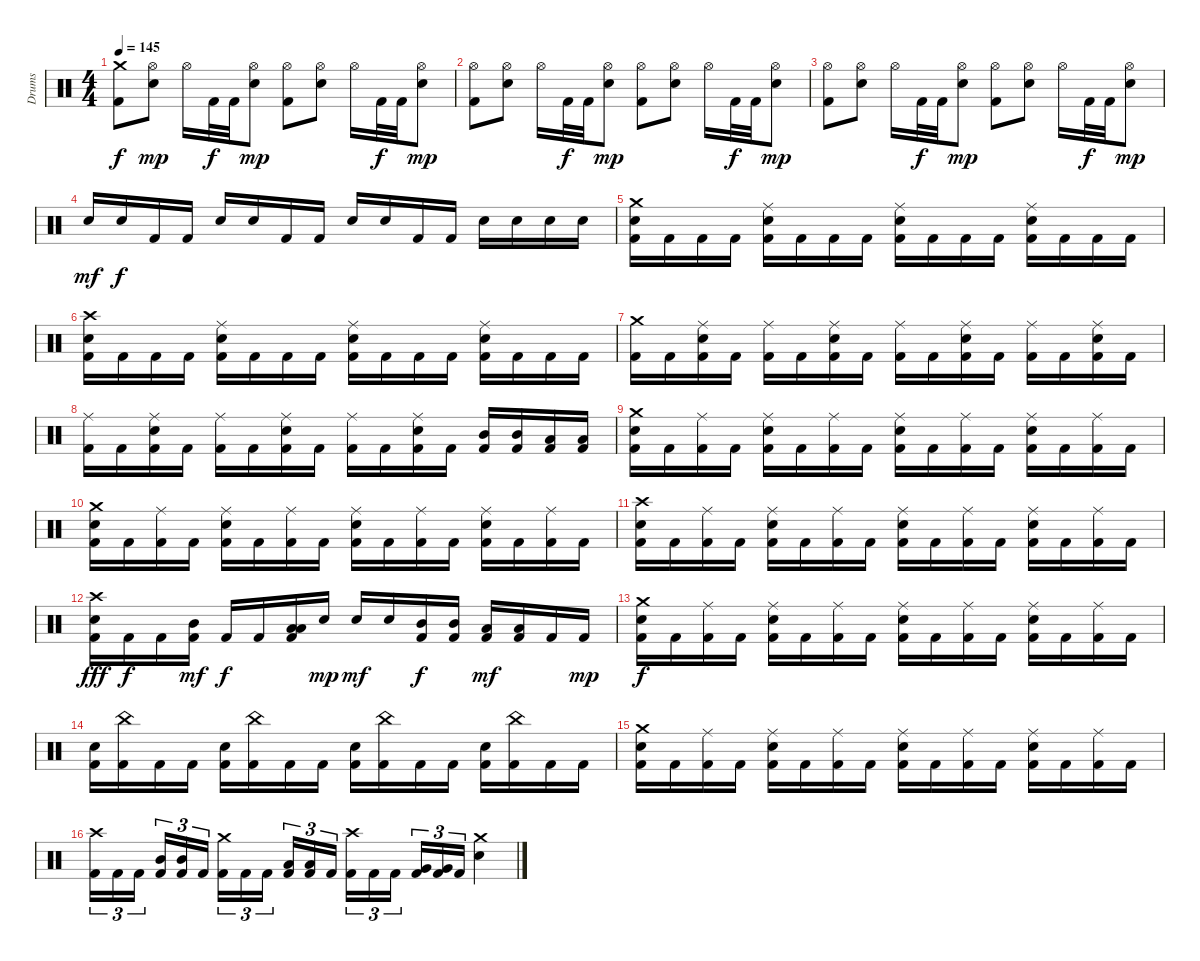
\track ("Drums" "Drums") {instrument percussion}
\staff {score}
\articulation defaults
\ts (4 4)
\tempo 145
\clef neutral
\ks c
("Crash medium (hit)" "Kick (hit) 2").8{dy f} ("Hi-Hat (open)" "Electric Snare (hit)").8{dy mp} "Hi-Hat (open)".16 "Kick (hit) 2".32{dy f} "Kick (hit) 2".32 ("Hi-Hat (open)" "Electric Snare (hit)").8{dy mp} ("Hi-Hat (open)" "Kick (hit) 2").8 ("Hi-Hat (open)" "Electric Snare (hit)").8 "Hi-Hat (open)".16 "Kick (hit) 2".32{dy f} "Kick (hit) 2".32 ("Hi-Hat (open)" "Electric Snare (hit)").8{dy mp} |
("Hi-Hat (open)" "Kick (hit) 2").8 ("Hi-Hat (open)" "Electric Snare (hit)").8 "Hi-Hat (open)".16 "Kick (hit) 2".32{dy f} "Kick (hit) 2".32 ("Hi-Hat (open)" "Electric Snare (hit)").8{dy mp} ("Hi-Hat (open)" "Kick (hit) 2").8 ("Hi-Hat (open)" "Electric Snare (hit)").8 "Hi-Hat (open)".16 "Kick (hit) 2".32{dy f} "Kick (hit) 2".32 ("Hi-Hat (open)" "Electric Snare (hit)").8{dy mp} |
("Hi-Hat (open)" "Kick (hit) 2").8 ("Hi-Hat (open)" "Electric Snare (hit)").8 "Hi-Hat (open)".16 "Kick (hit) 2".32{dy f} "Kick (hit) 2".32 ("Hi-Hat (open)" "Electric Snare (hit)").8{dy mp} ("Hi-Hat (open)" "Kick (hit) 2").8 ("Hi-Hat (open)" "Electric Snare (hit)").8 "Hi-Hat (open)".16 "Kick (hit) 2".32{dy f} "Kick (hit) 2".32 ("Hi-Hat (open)" "Electric Snare (hit)").8{dy mp} |
"Electric Snare (hit)".16{dy mf} "Electric Snare (hit)".16{dy f} "Kick (hit) 2".16 "Kick (hit) 2".16 "Electric Snare (hit)".16 "Electric Snare (hit)".16 "Kick (hit) 2".16 "Kick (hit) 2".16 "Electric Snare (hit)".16 "Electric Snare (hit)".16 "Kick (hit) 2".16 "Kick (hit) 2".16 "Electric Snare (hit)".16 "Electric Snare (hit)".16 "Electric Snare (hit)".16 "Electric Snare (hit)".16 |
("Crash medium (hit)" "Kick (hit) 2" "Electric Snare (hit)").16 "Kick (hit) 2".16 "Kick (hit) 2".16 "Kick (hit) 2".16 ("Ride (middle)" "Kick (hit) 2" "Electric Snare (hit)").16 "Kick (hit) 2".16 "Kick (hit) 2".16 "Kick (hit) 2".16 ("Ride (middle)" "Kick (hit) 2" "Electric Snare (hit)").16 "Kick (hit) 2".16 "Kick (hit) 2".16 "Kick (hit) 2".16 ("Ride (middle)" "Kick (hit) 2" "Electric Snare (hit)").16 "Kick (hit) 2".16 "Kick (hit) 2".16 "Kick (hit) 2".16 |
("Crash high (hit)" "Kick (hit) 2" "Electric Snare (hit)").16 "Kick (hit) 2".16 "Kick (hit) 2".16 "Kick (hit) 2".16 ("Ride (middle)" "Kick (hit) 2" "Electric Snare (hit)").16 "Kick (hit) 2".16 "Kick (hit) 2".16 "Kick (hit) 2".16 ("Ride (middle)" "Kick (hit) 2" "Electric Snare (hit)").16 "Kick (hit) 2".16 "Kick (hit) 2".16 "Kick (hit) 2".16 ("Ride (middle)" "Kick (hit) 2" "Electric Snare (hit)").16 "Kick (hit) 2".16 "Kick (hit) 2".16 "Kick (hit) 2".16 |
("Crash medium (hit)" "Kick (hit) 2").16 "Kick (hit) 2".16 ("Ride (middle)" "Kick (hit) 2" "Electric Snare (hit)").16 "Kick (hit) 2".16 ("Ride (middle)" "Kick (hit) 2").16 "Kick (hit) 2".16 ("Ride (middle)" "Kick (hit) 2" "Electric Snare (hit)").16 "Kick (hit) 2".16 ("Ride (middle)" "Kick (hit) 2").16 "Kick (hit) 2".16 ("Ride (middle)" "Kick (hit) 2" "Electric Snare (hit)").16 "Kick (hit) 2".16 ("Ride (middle)" "Kick (hit) 2").16 "Kick (hit) 2".16 ("Ride (middle)" "Kick (hit) 2" "Electric Snare (hit)").16 "Kick (hit) 2".16 |
("Ride (middle)" "Kick (hit) 2").16 "Kick (hit) 2".16 ("Ride (middle)" "Kick (hit) 2" "Electric Snare (hit)").16 "Kick (hit) 2".16 ("Ride (middle)" "Kick (hit) 2").16 "Kick (hit) 2".16 ("Ride (middle)" "Kick (hit) 2" "Electric Snare (hit)").16 "Kick (hit) 2".16 ("Ride (middle)" "Kick (hit) 2").16 "Kick (hit) 2".16 ("Ride (middle)" "Kick (hit) 2" "Electric Snare (hit)").16 "Kick (hit) 2".16 ("Mid Tom (hit)" "Kick (hit) 2").16 ("Mid Tom (hit)" "Kick (hit) 2").16 ("Low Tom (hit)" "Kick (hit) 2").16 ("Low Tom (hit)" "Kick (hit) 2").16 |
("Crash medium (hit)" "Kick (hit) 2" "Electric Snare (hit)").16 "Kick (hit) 2".16 ("Ride (middle)" "Kick (hit) 2").16 "Kick (hit) 2".16 ("Ride (middle)" "Kick (hit) 2" "Electric Snare (hit)").16 "Kick (hit) 2".16 ("Ride (middle)" "Kick (hit) 2").16 "Kick (hit) 2".16 ("Ride (middle)" "Kick (hit) 2" "Electric Snare (hit)").16 "Kick (hit) 2".16 ("Ride (middle)" "Kick (hit) 2").16 "Kick (hit) 2".16 ("Ride (middle)" "Kick (hit) 2" "Electric Snare (hit)").16 "Kick (hit) 2".16 ("Ride (middle)" "Kick (hit) 2").16 "Kick (hit) 2".16 |
("Crash medium (hit)" "Kick (hit) 2" "Electric Snare (hit)").16 "Kick (hit) 2".16 ("Ride (middle)" "Kick (hit) 2").16 "Kick (hit) 2".16 ("Ride (middle)" "Kick (hit) 2" "Electric Snare (hit)").16 "Kick (hit) 2".16 ("Ride (middle)" "Kick (hit) 2").16 "Kick (hit) 2".16 ("Ride (middle)" "Kick (hit) 2" "Electric Snare (hit)").16 "Kick (hit) 2".16 ("Ride (middle)" "Kick (hit) 2").16 "Kick (hit) 2".16 ("Ride (middle)" "Kick (hit) 2" "Electric Snare (hit)").16 "Kick (hit) 2".16 ("Ride (middle)" "Kick (hit) 2").16 "Kick (hit) 2".16 |
("Crash high (hit)" "Kick (hit) 2" "Electric Snare (hit)").16 "Kick (hit) 2".16 ("Ride (middle)" "Kick (hit) 2").16 "Kick (hit) 2".16 ("Ride (middle)" "Kick (hit) 2" "Electric Snare (hit)").16 "Kick (hit) 2".16 ("Ride (middle)" "Kick (hit) 2").16 "Kick (hit) 2".16 ("Ride (middle)" "Kick (hit) 2" "Electric Snare (hit)").16 "Kick (hit) 2".16 ("Ride (middle)" "Kick (hit) 2").16 "Kick (hit) 2".16 ("Ride (middle)" "Kick (hit) 2" "Electric Snare (hit)").16 "Kick (hit) 2".16 ("Ride (middle)" "Kick (hit) 2").16 "Kick (hit) 2".16 |
("Crash high (hit)" "Kick (hit) 2" "Electric Snare (hit)").16{dy fff} "Kick (hit) 2".16{dy f} "Kick (hit) 2".16 ("Mid Tom (hit)" "Kick (hit) 2").16{dy mf} "Kick (hit) 2".16{dy f} "Kick (hit) 2".16 ("Low Tom (hit)" "Kick (hit) 2" "Low Tom (hit)").16 "Electric Snare (hit)".16{dy mp} "Electric Snare (hit)".16{dy mf} "Electric Snare (hit)".16 ("Mid Tom (hit)" "Kick (hit) 2").16{dy f} ("Mid Tom (hit)" "Kick (hit) 2").16 ("Low Tom (hit)" "Kick (hit) 2").16{dy mf} ("Low Tom (hit)" "Kick (hit) 2").16 "Kick (hit) 2".16 "Kick (hit) 2".16{dy mp} |
("Crash medium (hit)" "Kick (hit) 2" "Electric Snare (hit)").16{dy f} "Kick (hit) 2".16 ("Ride (middle)" "Kick (hit) 2").16 "Kick (hit) 2".16 ("Ride (middle)" "Kick (hit) 2" "Electric Snare (hit)").16 "Kick (hit) 2".16 ("Ride (middle)" "Kick (hit) 2").16 "Kick (hit) 2".16 ("Ride (middle)" "Kick (hit) 2" "Electric Snare (hit)").16 "Kick (hit) 2".16 ("Ride (middle)" "Kick (hit) 2").16 "Kick (hit) 2".16 ("Ride (middle)" "Kick (hit) 2" "Electric Snare (hit)").16 "Kick (hit) 2".16 ("Ride (middle)" "Kick (hit) 2").16 "Kick (hit) 2".16 |
("Kick (hit) 2" "Electric Snare (hit)").16 ("China (hit)" "Kick (hit) 2").16 "Kick (hit) 2".16 "Kick (hit) 2".16 ("Kick (hit) 2" "Electric Snare (hit)").16 ("China (hit)" "Kick (hit) 2").16 "Kick (hit) 2".16 "Kick (hit) 2".16 ("Kick (hit) 2" "Electric Snare (hit)").16 ("China (hit)" "Kick (hit) 2").16 "Kick (hit) 2".16 "Kick (hit) 2".16 ("Kick (hit) 2" "Electric Snare (hit)").16 ("China (hit)" "Kick (hit) 2").16 "Kick (hit) 2".16 "Kick (hit) 2".16 |
("Crash medium (hit)" "Kick (hit) 2" "Electric Snare (hit)").16 "Kick (hit) 2".16 ("Ride (middle)" "Kick (hit) 2").16 "Kick (hit) 2".16 ("Ride (middle)" "Kick (hit) 2" "Electric Snare (hit)").16 "Kick (hit) 2".16 ("Ride (middle)" "Kick (hit) 2").16 "Kick (hit) 2".16 ("Ride (middle)" "Kick (hit) 2" "Electric Snare (hit)").16 "Kick (hit) 2".16 ("Ride (middle)" "Kick (hit) 2").16 "Kick (hit) 2".16 ("Ride (middle)" "Kick (hit) 2" "Electric Snare (hit)").16 "Kick (hit) 2".16 ("Ride (middle)" "Kick (hit) 2").16 "Kick (hit) 2".16 |
("Crash high (hit)" "Kick (hit) 2").16{tu (3 2)} "Kick (hit) 2".16{tu (3 2)} "Kick (hit) 2".16{tu (3 2) beam splitsecondary} ("Mid Tom (hit)" "Kick (hit) 2").16{tu (3 2)} ("Mid Tom (hit)" "Kick (hit) 2").16{tu (3 2)} "Kick (hit) 2".16{tu (3 2)} ("Crash medium (hit)" "Kick (hit) 2").16{tu (3 2)} "Kick (hit) 2".16{tu (3 2)} "Kick (hit) 2".16{tu (3 2) beam splitsecondary} ("Low Tom (hit)" "Kick (hit) 2").16{tu (3 2)} ("Low Tom (hit)" "Kick (hit) 2").16{tu (3 2)} "Kick (hit) 2".16{tu (3 2)} ("Crash high (hit)" "Kick (hit) 2").16{tu (3 2)} "Kick (hit) 2".16{tu (3 2)} "Kick (hit) 2".16{tu (3 2) beam splitsecondary} ("Very Low Tom (hit)" "Kick (hit) 2").16{tu (3 2)} ("Very Low Tom (hit)" "Kick (hit) 2").16{tu (3 2)} "Kick (hit) 2".16{tu (3 2)} ("Crash medium (hit)" "Electric Snare (hit)").4
